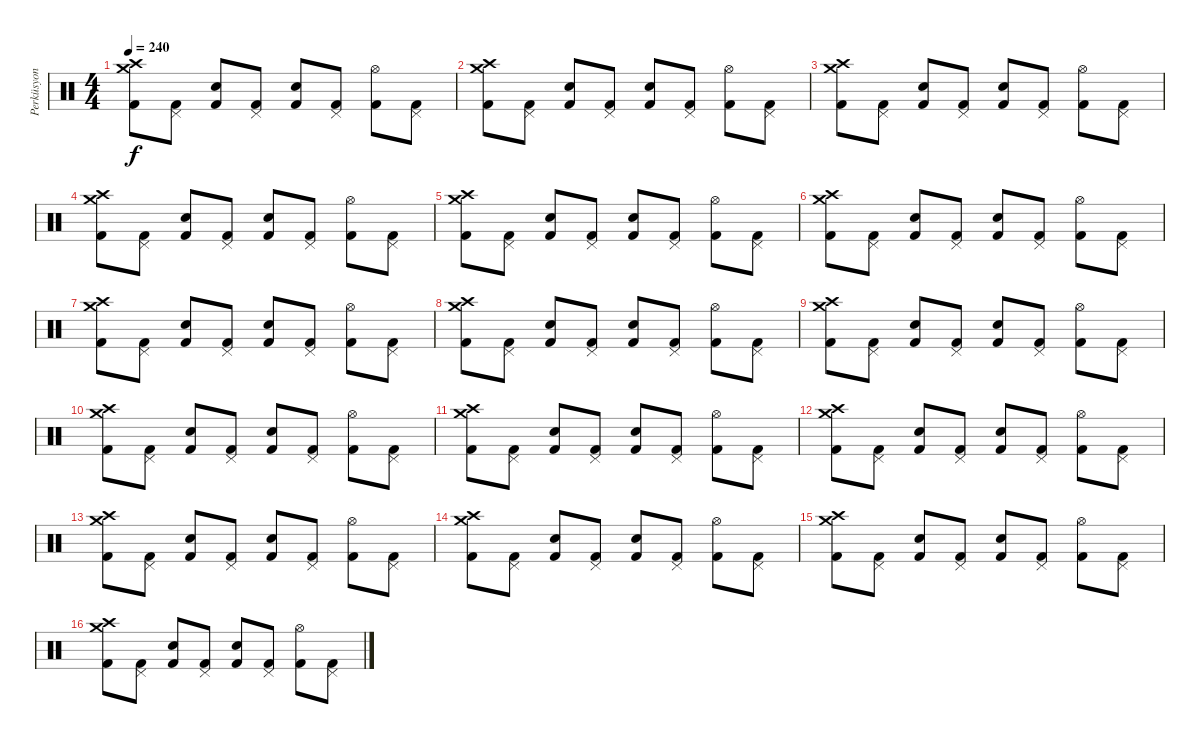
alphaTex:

\track ("Perküsyon" "Perküsyon") {instrument percussion}
\staff {score}
\articulation defaults
\ts (4 4)
\tempo 240
\clef neutral
\ks c
("Crash medium (hit)" "Kick (hit) 2" "Crash high (hit)").8{dy f} ("Kick (hit) 2" "Pedal Hi-Hat (hit)").8 ("Kick (hit) 2" "Snare (hit) 2").8 ("Kick (hit) 2" "Pedal Hi-Hat (hit)").8 ("Kick (hit) 2" "Electric Snare (hit)").8 ("Kick (hit) 2" "Pedal Hi-Hat (hit)").8 ("Kick (hit) 2" "Hi-Hat (open)").8 ("Kick (hit) 2" "Pedal Hi-Hat (hit)").8 |
("Crash medium (hit)" "Kick (hit) 2" "Crash high (hit)").8 ("Kick (hit) 2" "Pedal Hi-Hat (hit)").8 ("Kick (hit) 2" "Snare (hit) 2").8 ("Kick (hit) 2" "Pedal Hi-Hat (hit)").8 ("Kick (hit) 2" "Electric Snare (hit)").8 ("Kick (hit) 2" "Pedal Hi-Hat (hit)").8 ("Kick (hit) 2" "Hi-Hat (open)").8 ("Kick (hit) 2" "Pedal Hi-Hat (hit)").8 |
("Crash medium (hit)" "Kick (hit) 2" "Crash high (hit)").8 ("Kick (hit) 2" "Pedal Hi-Hat (hit)").8 ("Kick (hit) 2" "Snare (hit) 2").8 ("Kick (hit) 2" "Pedal Hi-Hat (hit)").8 ("Kick (hit) 2" "Electric Snare (hit)").8 ("Kick (hit) 2" "Pedal Hi-Hat (hit)").8 ("Kick (hit) 2" "Hi-Hat (open)").8 ("Kick (hit) 2" "Pedal Hi-Hat (hit)").8 |
("Crash medium (hit)" "Kick (hit) 2" "Crash high (hit)").8 ("Kick (hit) 2" "Pedal Hi-Hat (hit)").8 ("Kick (hit) 2" "Snare (hit) 2").8 ("Kick (hit) 2" "Pedal Hi-Hat (hit)").8 ("Kick (hit) 2" "Electric Snare (hit)").8 ("Kick (hit) 2" "Pedal Hi-Hat (hit)").8 ("Kick (hit) 2" "Hi-Hat (open)").8 ("Kick (hit) 2" "Pedal Hi-Hat (hit)").8 |
("Crash medium (hit)" "Kick (hit) 2" "Crash high (hit)").8{volume 16} ("Kick (hit) 2" "Pedal Hi-Hat (hit)").8 ("Kick (hit) 2" "Snare (hit) 2").8 ("Kick (hit) 2" "Pedal Hi-Hat (hit)").8 ("Kick (hit) 2" "Electric Snare (hit)").8 ("Kick (hit) 2" "Pedal Hi-Hat (hit)").8 ("Kick (hit) 2" "Hi-Hat (open)").8 ("Kick (hit) 2" "Pedal Hi-Hat (hit)").8 |
("Crash medium (hit)" "Kick (hit) 2" "Crash high (hit)").8 ("Kick (hit) 2" "Pedal Hi-Hat (hit)").8 ("Kick (hit) 2" "Snare (hit) 2").8 ("Kick (hit) 2" "Pedal Hi-Hat (hit)").8 ("Kick (hit) 2" "Electric Snare (hit)").8 ("Kick (hit) 2" "Pedal Hi-Hat (hit)").8 ("Kick (hit) 2" "Hi-Hat (open)").8 ("Kick (hit) 2" "Pedal Hi-Hat (hit)").8 |
("Crash medium (hit)" "Kick (hit) 2" "Crash high (hit)").8 ("Kick (hit) 2" "Pedal Hi-Hat (hit)").8 ("Kick (hit) 2" "Snare (hit) 2").8 ("Kick (hit) 2" "Pedal Hi-Hat (hit)").8 ("Kick (hit) 2" "Electric Snare (hit)").8 ("Kick (hit) 2" "Pedal Hi-Hat (hit)").8 ("Kick (hit) 2" "Hi-Hat (open)").8 ("Kick (hit) 2" "Pedal Hi-Hat (hit)").8 |
("Crash medium (hit)" "Kick (hit) 2" "Crash high (hit)").8 ("Kick (hit) 2" "Pedal Hi-Hat (hit)").8 ("Kick (hit) 2" "Snare (hit) 2").8 ("Kick (hit) 2" "Pedal Hi-Hat (hit)").8 ("Kick (hit) 2" "Electric Snare (hit)").8 ("Kick (hit) 2" "Pedal Hi-Hat (hit)").8 ("Kick (hit) 2" "Hi-Hat (open)").8 ("Kick (hit) 2" "Pedal Hi-Hat (hit)").8 |
("Crash medium (hit)" "Kick (hit) 2" "Crash high (hit)").8 ("Kick (hit) 2" "Pedal Hi-Hat (hit)").8 ("Kick (hit) 2" "Snare (hit) 2").8 ("Kick (hit) 2" "Pedal Hi-Hat (hit)").8 ("Kick (hit) 2" "Electric Snare (hit)").8 ("Kick (hit) 2" "Pedal Hi-Hat (hit)").8 ("Kick (hit) 2" "Hi-Hat (open)").8 ("Kick (hit) 2" "Pedal Hi-Hat (hit)").8 |
("Crash medium (hit)" "Kick (hit) 2" "Crash high (hit)").8 ("Kick (hit) 2" "Pedal Hi-Hat (hit)").8 ("Kick (hit) 2" "Snare (hit) 2").8 ("Kick (hit) 2" "Pedal Hi-Hat (hit)").8 ("Kick (hit) 2" "Electric Snare (hit)").8 ("Kick (hit) 2" "Pedal Hi-Hat (hit)").8 ("Kick (hit) 2" "Hi-Hat (open)").8 ("Kick (hit) 2" "Pedal Hi-Hat (hit)").8 |
("Crash medium (hit)" "Kick (hit) 2" "Crash high (hit)").8 ("Kick (hit) 2" "Pedal Hi-Hat (hit)").8 ("Kick (hit) 2" "Snare (hit) 2").8 ("Kick (hit) 2" "Pedal Hi-Hat (hit)").8 ("Kick (hit) 2" "Electric Snare (hit)").8 ("Kick (hit) 2" "Pedal Hi-Hat (hit)").8 ("Kick (hit) 2" "Hi-Hat (open)").8 ("Kick (hit) 2" "Pedal Hi-Hat (hit)").8 |
("Crash medium (hit)" "Kick (hit) 2" "Crash high (hit)").8 ("Kick (hit) 2" "Pedal Hi-Hat (hit)").8 ("Kick (hit) 2" "Snare (hit) 2").8 ("Kick (hit) 2" "Pedal Hi-Hat (hit)").8 ("Kick (hit) 2" "Electric Snare (hit)").8 ("Kick (hit) 2" "Pedal Hi-Hat (hit)").8 ("Kick (hit) 2" "Hi-Hat (open)").8 ("Kick (hit) 2" "Pedal Hi-Hat (hit)").8 |
("Crash medium (hit)" "Kick (hit) 2" "Crash high (hit)").8 ("Kick (hit) 2" "Pedal Hi-Hat (hit)").8 ("Kick (hit) 2" "Snare (hit) 2").8 ("Kick (hit) 2" "Pedal Hi-Hat (hit)").8 ("Kick (hit) 2" "Electric Snare (hit)").8 ("Kick (hit) 2" "Pedal Hi-Hat (hit)").8 ("Kick (hit) 2" "Hi-Hat (open)").8 ("Kick (hit) 2" "Pedal Hi-Hat (hit)").8 |
("Crash medium (hit)" "Kick (hit) 2" "Crash high (hit)").8{volume 16} ("Kick (hit) 2" "Pedal Hi-Hat (hit)").8 ("Kick (hit) 2" "Snare (hit) 2").8 ("Kick (hit) 2" "Pedal Hi-Hat (hit)").8 ("Kick (hit) 2" "Electric Snare (hit)").8 ("Kick (hit) 2" "Pedal Hi-Hat (hit)").8 ("Kick (hit) 2" "Hi-Hat (open)").8 ("Kick (hit) 2" "Pedal Hi-Hat (hit)").8 |
("Crash medium (hit)" "Kick (hit) 2" "Crash high (hit)").8 ("Kick (hit) 2" "Pedal Hi-Hat (hit)").8 ("Kick (hit) 2" "Snare (hit) 2").8 ("Kick (hit) 2" "Pedal Hi-Hat (hit)").8 ("Kick (hit) 2" "Electric Snare (hit)").8 ("Kick (hit) 2" "Pedal Hi-Hat (hit)").8 ("Kick (hit) 2" "Hi-Hat (open)").8 ("Kick (hit) 2" "Pedal Hi-Hat (hit)").8 |
("Crash medium (hit)" "Kick (hit) 2" "Crash high (hit)").8 ("Kick (hit) 2" "Pedal Hi-Hat (hit)").8 ("Kick (hit) 2" "Snare (hit) 2").8 ("Kick (hit) 2" "Pedal Hi-Hat (hit)").8 ("Kick (hit) 2" "Electric Snare (hit)").8 ("Kick (hit) 2" "Pedal Hi-Hat (hit)").8 ("Kick (hit) 2" "Hi-Hat (open)").8 ("Kick (hit) 2" "Pedal Hi-Hat (hit)").8
